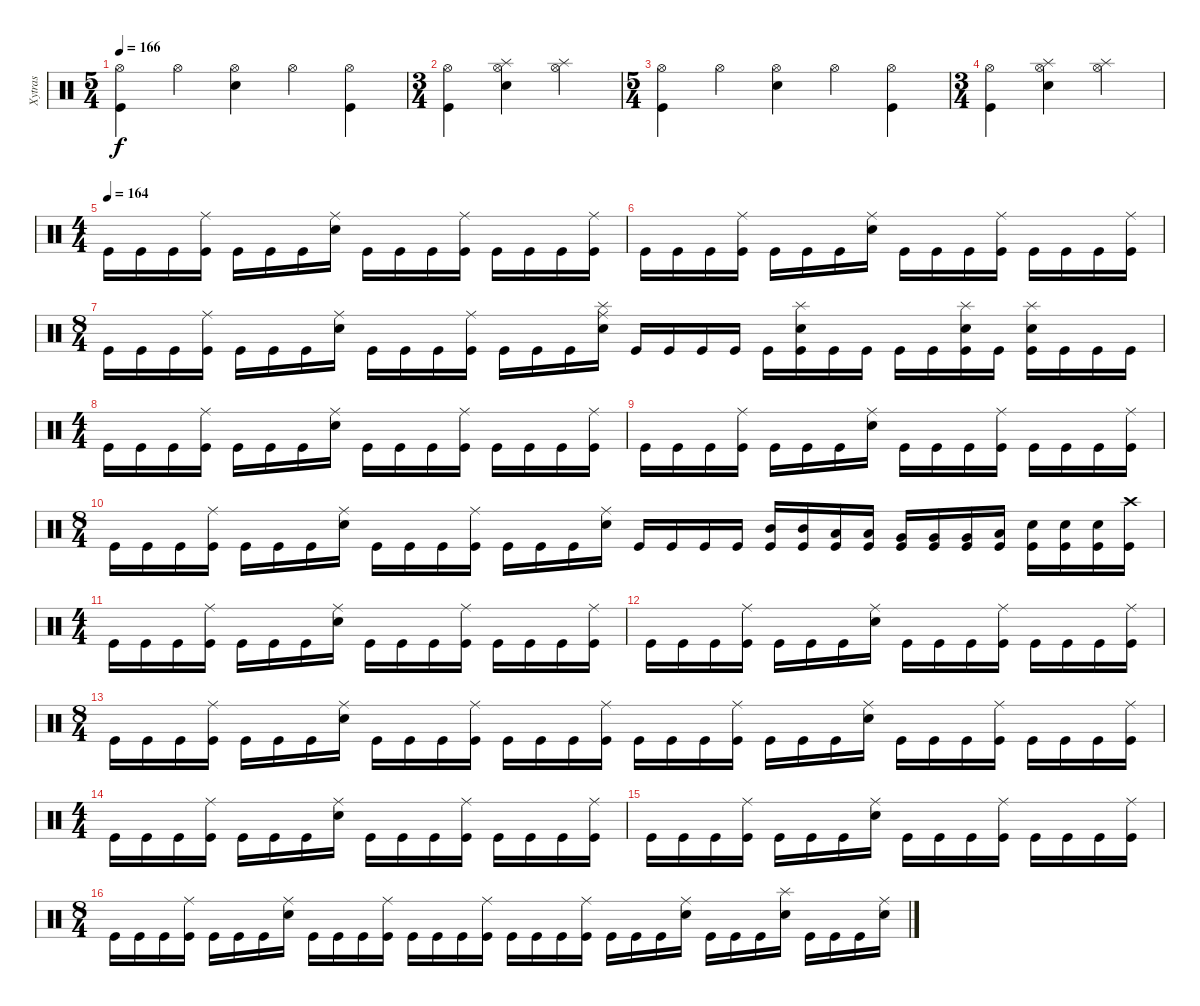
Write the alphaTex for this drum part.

\track ("Xytras" "Xytras") {instrument percussion}
\staff {score}
\articulation defaults
\ts (5 4)
\tempo 166
\clef neutral
\ks c
("Hi-Hat (open)" "Kick (hit)").4{dy f} "Hi-Hat (open)".4 ("Hi-Hat (open)" "Electric Snare (hit)").4 "Hi-Hat (open)".4 ("Hi-Hat (open)" "Kick (hit)").4 |
\ts (3 4)
("Hi-Hat (open)" "Kick (hit)").4 ("Hi-Hat (open)" "Electric Snare (hit)" "Splash (hit)").4 ("Hi-Hat (open)" "Splash (hit)").4 |
\ts (5 4)
("Hi-Hat (open)" "Kick (hit)").4 "Hi-Hat (open)".4 ("Hi-Hat (open)" "Electric Snare (hit)").4 "Hi-Hat (open)".4 ("Hi-Hat (open)" "Kick (hit)").4 |
\ts (3 4)
("Hi-Hat (open)" "Kick (hit)").4 ("Hi-Hat (open)" "Electric Snare (hit)" "Splash (hit)").4 ("Hi-Hat (open)" "Splash (hit)").4 |
\ts (4 4)
\tempo (164)
"Kick (hit)".16 "Kick (hit)".16 "Kick (hit)".16 ("Kick (hit)" "Ride (middle)").16 "Kick (hit)".16 "Kick (hit)".16 "Kick (hit)".16 ("Ride (middle)" "Electric Snare (hit)").16 "Kick (hit)".16 "Kick (hit)".16 "Kick (hit)".16 ("Kick (hit)" "Ride (middle)").16 "Kick (hit)".16 "Kick (hit)".16 "Kick (hit)".16 ("Kick (hit)" "Ride (middle)").16 |
"Kick (hit)".16 "Kick (hit)".16 "Kick (hit)".16 ("Kick (hit)" "Ride (middle)").16 "Kick (hit)".16 "Kick (hit)".16 "Kick (hit)".16 ("Ride (middle)" "Electric Snare (hit)").16 "Kick (hit)".16 "Kick (hit)".16 "Kick (hit)".16 ("Kick (hit)" "Ride (middle)").16 "Kick (hit)".16 "Kick (hit)".16 "Kick (hit)".16 ("Kick (hit)" "Ride (middle)").16 |
\ts (8 4)
"Kick (hit)".16 "Kick (hit)".16 "Kick (hit)".16 ("Kick (hit)" "Ride (middle)").16 "Kick (hit)".16 "Kick (hit)".16 "Kick (hit)".16 ("Ride (middle)" "Electric Snare (hit)").16 "Kick (hit)".16 "Kick (hit)".16 "Kick (hit)".16 ("Kick (hit)" "Ride (middle)").16 "Kick (hit)".16 "Kick (hit)".16 "Kick (hit)".16 ("Ride (middle)" "Electric Snare (hit)" "Splash (hit)").16 "Kick (hit)".16 "Kick (hit)".16 "Kick (hit)".16 "Kick (hit)".16 "Kick (hit)".16 ("Kick (hit)" "Electric Snare (hit)" "Splash (hit)").16 "Kick (hit)".16 "Kick (hit)".16 "Kick (hit)".16 "Kick (hit)".16 ("Kick (hit)" "Electric Snare (hit)" "Splash (hit)").16 "Kick (hit)".16 ("Kick (hit)" "Electric Snare (hit)" "Splash (hit)").16 "Kick (hit)".16 "Kick (hit)".16 "Kick (hit)".16 |
\ts (4 4)
"Kick (hit)".16 "Kick (hit)".16 "Kick (hit)".16 ("Kick (hit)" "Ride (middle)").16 "Kick (hit)".16 "Kick (hit)".16 "Kick (hit)".16 ("Ride (middle)" "Electric Snare (hit)").16 "Kick (hit)".16 "Kick (hit)".16 "Kick (hit)".16 ("Kick (hit)" "Ride (middle)").16 "Kick (hit)".16 "Kick (hit)".16 "Kick (hit)".16 ("Kick (hit)" "Ride (middle)").16 |
"Kick (hit)".16 "Kick (hit)".16 "Kick (hit)".16 ("Kick (hit)" "Ride (middle)").16 "Kick (hit)".16 "Kick (hit)".16 "Kick (hit)".16 ("Ride (middle)" "Electric Snare (hit)").16 "Kick (hit)".16 "Kick (hit)".16 "Kick (hit)".16 ("Kick (hit)" "Ride (middle)").16 "Kick (hit)".16 "Kick (hit)".16 "Kick (hit)".16 ("Kick (hit)" "Ride (middle)").16 |
\ts (8 4)
"Kick (hit)".16 "Kick (hit)".16 "Kick (hit)".16 ("Kick (hit)" "Ride (middle)").16 "Kick (hit)".16 "Kick (hit)".16 "Kick (hit)".16 ("Ride (middle)" "Electric Snare (hit)").16 "Kick (hit)".16 "Kick (hit)".16 "Kick (hit)".16 ("Kick (hit)" "Ride (middle)").16 "Kick (hit)".16 "Kick (hit)".16 "Kick (hit)".16 ("Ride (middle)" "Electric Snare (hit)").16 "Kick (hit)".16 "Kick (hit)".16 "Kick (hit)".16 "Kick (hit)".16 ("Kick (hit)" "Mid Tom (hit)").16 ("Kick (hit)" "Mid Tom (hit)").16 ("Kick (hit)" "Low Tom (hit)").16 ("Kick (hit)" "Low Tom (hit)").16 ("Kick (hit)" "Very Low Tom (hit)").16 ("Kick (hit)" "Very Low Tom (hit)").16 ("Kick (hit)" "Very Low Tom (hit)").16 ("Kick (hit)" "Low Floor Tom (hit)").16 ("Kick (hit)" "Snare (hit) 2").16 ("Kick (hit)" "Snare (hit) 2").16 ("Kick (hit)" "Snare (hit) 2").16 ("Kick (hit)" "Crash high (hit)").16 |
\ts (4 4)
"Kick (hit)".16 "Kick (hit)".16 "Kick (hit)".16 ("Kick (hit)" "Ride (middle)").16 "Kick (hit)".16 "Kick (hit)".16 "Kick (hit)".16 ("Ride (middle)" "Electric Snare (hit)").16 "Kick (hit)".16 "Kick (hit)".16 "Kick (hit)".16 ("Kick (hit)" "Ride (middle)").16 "Kick (hit)".16 "Kick (hit)".16 "Kick (hit)".16 ("Kick (hit)" "Ride (middle)").16 |
"Kick (hit)".16 "Kick (hit)".16 "Kick (hit)".16 ("Kick (hit)" "Ride (middle)").16 "Kick (hit)".16 "Kick (hit)".16 "Kick (hit)".16 ("Ride (middle)" "Electric Snare (hit)").16 "Kick (hit)".16 "Kick (hit)".16 "Kick (hit)".16 ("Kick (hit)" "Ride (middle)").16 "Kick (hit)".16 "Kick (hit)".16 "Kick (hit)".16 ("Kick (hit)" "Ride (middle)").16 |
\ts (8 4)
"Kick (hit)".16 "Kick (hit)".16 "Kick (hit)".16 ("Kick (hit)" "Ride (middle)").16 "Kick (hit)".16 "Kick (hit)".16 "Kick (hit)".16 ("Ride (middle)" "Electric Snare (hit)").16 "Kick (hit)".16 "Kick (hit)".16 "Kick (hit)".16 ("Kick (hit)" "Ride (middle)").16 "Kick (hit)".16 "Kick (hit)".16 "Kick (hit)".16 ("Kick (hit)" "Ride (middle)").16 "Kick (hit)".16 "Kick (hit)".16 "Kick (hit)".16 ("Kick (hit)" "Ride (middle)").16 "Kick (hit)".16 "Kick (hit)".16 "Kick (hit)".16 ("Ride (middle)" "Electric Snare (hit)").16 "Kick (hit)".16 "Kick (hit)".16 "Kick (hit)".16 ("Kick (hit)" "Ride (middle)").16 "Kick (hit)".16 "Kick (hit)".16 "Kick (hit)".16 ("Ride (middle)" "Kick (hit)").16 |
\ts (4 4)
"Kick (hit)".16 "Kick (hit)".16 "Kick (hit)".16 ("Kick (hit)" "Ride (middle)").16 "Kick (hit)".16 "Kick (hit)".16 "Kick (hit)".16 ("Ride (middle)" "Electric Snare (hit)").16 "Kick (hit)".16 "Kick (hit)".16 "Kick (hit)".16 ("Kick (hit)" "Ride (middle)").16 "Kick (hit)".16 "Kick (hit)".16 "Kick (hit)".16 ("Kick (hit)" "Ride (middle)").16 |
"Kick (hit)".16 "Kick (hit)".16 "Kick (hit)".16 ("Kick (hit)" "Ride (middle)").16 "Kick (hit)".16 "Kick (hit)".16 "Kick (hit)".16 ("Ride (middle)" "Electric Snare (hit)").16 "Kick (hit)".16 "Kick (hit)".16 "Kick (hit)".16 ("Kick (hit)" "Ride (middle)").16 "Kick (hit)".16 "Kick (hit)".16 "Kick (hit)".16 ("Kick (hit)" "Ride (middle)").16 |
\ts (8 4)
"Kick (hit)".16 "Kick (hit)".16 "Kick (hit)".16 ("Kick (hit)" "Ride (middle)").16 "Kick (hit)".16 "Kick (hit)".16 "Kick (hit)".16 ("Ride (middle)" "Electric Snare (hit)").16 "Kick (hit)".16 "Kick (hit)".16 "Kick (hit)".16 ("Kick (hit)" "Ride (middle)").16 "Kick (hit)".16 "Kick (hit)".16 "Kick (hit)".16 ("Kick (hit)" "Ride (middle)").16 "Kick (hit)".16 "Kick (hit)".16 "Kick (hit)".16 ("Kick (hit)" "Ride (middle)").16 "Kick (hit)".16 "Kick (hit)".16 "Kick (hit)".16 ("Ride (middle)" "Electric Snare (hit)").16 "Kick (hit)".16 "Kick (hit)".16 "Kick (hit)".16 ("Splash (hit)" "Electric Snare (hit)").16 "Kick (hit)".16 "Kick (hit)".16 "Kick (hit)".16 ("Ride (middle)" "Electric Snare (hit)").16
